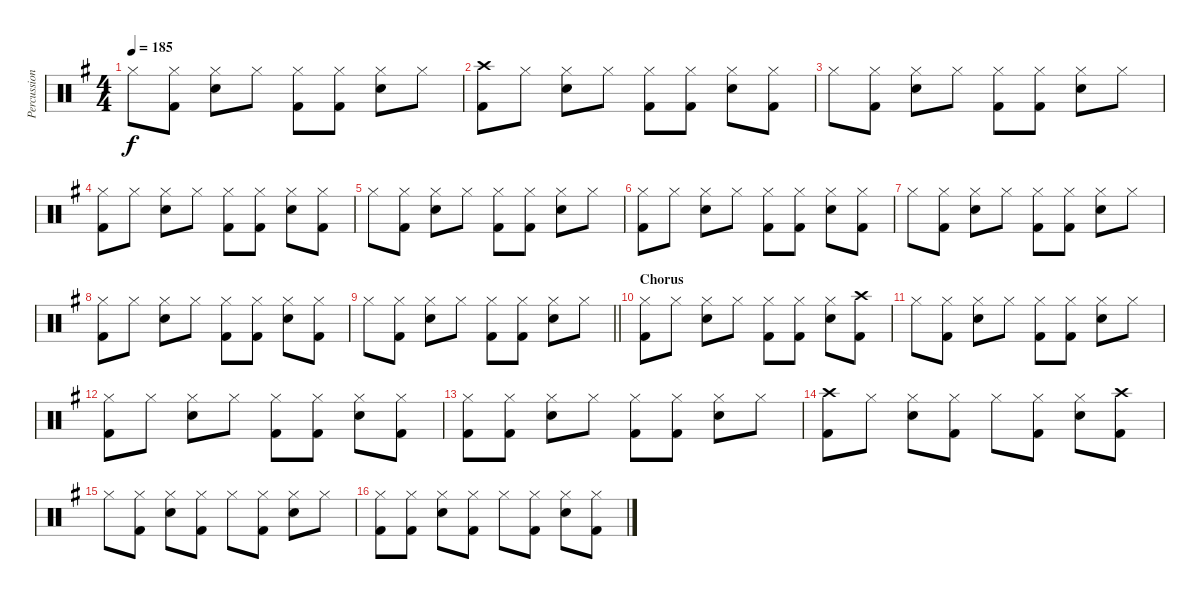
\track ("Percussion" "Percussion") {instrument percussion}
\staff {score}
\articulation defaults
\ts (4 4)
\tempo 185
\clef neutral
\ks g "Hi-Hat (closed)".8{dy f}
("Hi-Hat (closed)" "Kick (hit) 2").8 ("Hi-Hat (closed)" "Snare (hit) 2").8 "Hi-Hat (closed)".8 ("Hi-Hat (closed)" "Kick (hit) 2").8 ("Hi-Hat (closed)" "Kick (hit) 2").8 ("Hi-Hat (closed)" "Snare (hit) 2").8 "Hi-Hat (closed)".8 |
("Crash high (hit)" "Kick (hit) 2").8 "Hi-Hat (closed)".8 ("Hi-Hat (closed)" "Snare (hit) 2").8 "Hi-Hat (closed)".8 ("Hi-Hat (closed)" "Kick (hit) 2").8 ("Hi-Hat (closed)" "Kick (hit) 2").8 ("Hi-Hat (closed)" "Snare (hit) 2").8 ("Hi-Hat (closed)" "Kick (hit) 2").8 |
"Hi-Hat (closed)".8 ("Hi-Hat (closed)" "Kick (hit) 2").8 ("Hi-Hat (closed)" "Snare (hit) 2").8 "Hi-Hat (closed)".8 ("Hi-Hat (closed)" "Kick (hit) 2").8 ("Hi-Hat (closed)" "Kick (hit) 2").8 ("Hi-Hat (closed)" "Snare (hit) 2").8 "Hi-Hat (closed)".8 |
("Hi-Hat (closed)" "Kick (hit) 2").8 "Hi-Hat (closed)".8 ("Hi-Hat (closed)" "Snare (hit) 2").8 "Hi-Hat (closed)".8 ("Hi-Hat (closed)" "Kick (hit) 2").8 ("Hi-Hat (closed)" "Kick (hit) 2").8 ("Hi-Hat (closed)" "Snare (hit) 2").8 ("Hi-Hat (closed)" "Kick (hit) 2").8 |
"Hi-Hat (closed)".8 ("Hi-Hat (closed)" "Kick (hit) 2").8 ("Hi-Hat (closed)" "Snare (hit) 2").8 "Hi-Hat (closed)".8 ("Hi-Hat (closed)" "Kick (hit) 2").8 ("Hi-Hat (closed)" "Kick (hit) 2").8 ("Hi-Hat (closed)" "Snare (hit) 2").8 "Hi-Hat (closed)".8 |
("Hi-Hat (closed)" "Kick (hit) 2").8 "Hi-Hat (closed)".8 ("Hi-Hat (closed)" "Snare (hit) 2").8 "Hi-Hat (closed)".8 ("Hi-Hat (closed)" "Kick (hit) 2").8 ("Hi-Hat (closed)" "Kick (hit) 2").8 ("Hi-Hat (closed)" "Snare (hit) 2").8 ("Hi-Hat (closed)" "Kick (hit) 2").8 |
"Hi-Hat (closed)".8 ("Hi-Hat (closed)" "Kick (hit) 2").8 ("Hi-Hat (closed)" "Snare (hit) 2").8 "Hi-Hat (closed)".8 ("Hi-Hat (closed)" "Kick (hit) 2").8 ("Hi-Hat (closed)" "Kick (hit) 2").8 ("Hi-Hat (closed)" "Snare (hit) 2").8 "Hi-Hat (closed)".8 |
("Hi-Hat (closed)" "Kick (hit) 2").8 "Hi-Hat (closed)".8 ("Hi-Hat (closed)" "Snare (hit) 2").8 "Hi-Hat (closed)".8 ("Hi-Hat (closed)" "Kick (hit) 2").8 ("Hi-Hat (closed)" "Kick (hit) 2").8 ("Hi-Hat (closed)" "Snare (hit) 2").8 ("Hi-Hat (closed)" "Kick (hit) 2").8 |
\barLineRight lightlight "Hi-Hat (closed)".8
("Hi-Hat (closed)" "Kick (hit) 2").8 ("Hi-Hat (closed)" "Snare (hit) 2").8 "Hi-Hat (closed)".8 ("Hi-Hat (closed)" "Kick (hit) 2").8 ("Hi-Hat (closed)" "Kick (hit) 2").8 ("Hi-Hat (closed)" "Snare (hit) 2").8 "Hi-Hat (closed)".8 |
\section ("" "Chorus")
("Hi-Hat (closed)" "Kick (hit) 2").8 "Hi-Hat (closed)".8 ("Hi-Hat (closed)" "Snare (hit) 2").8 "Hi-Hat (closed)".8 ("Hi-Hat (closed)" "Kick (hit) 2").8 ("Hi-Hat (closed)" "Kick (hit) 2").8 ("Hi-Hat (closed)" "Snare (hit) 2").8 ("Crash high (hit)" "Kick (hit) 2").8 |
"Hi-Hat (closed)".8 ("Hi-Hat (closed)" "Kick (hit) 2").8 ("Hi-Hat (closed)" "Snare (hit) 2").8 "Hi-Hat (closed)".8 ("Hi-Hat (closed)" "Kick (hit) 2").8 ("Hi-Hat (closed)" "Kick (hit) 2").8 ("Hi-Hat (closed)" "Snare (hit) 2").8 "Hi-Hat (closed)".8 |
("Hi-Hat (closed)" "Kick (hit) 2").8 "Hi-Hat (closed)".8 ("Hi-Hat (closed)" "Snare (hit) 2").8 "Hi-Hat (closed)".8 ("Hi-Hat (closed)" "Kick (hit) 2").8 ("Hi-Hat (closed)" "Kick (hit) 2").8 ("Hi-Hat (closed)" "Snare (hit) 2").8 ("Hi-Hat (closed)" "Kick (hit) 2").8 |
("Hi-Hat (closed)" "Kick (hit) 2").8 ("Hi-Hat (closed)" "Kick (hit) 2").8 ("Hi-Hat (closed)" "Snare (hit) 2").8 "Hi-Hat (closed)".8 ("Hi-Hat (closed)" "Kick (hit) 2").8 ("Hi-Hat (closed)" "Kick (hit) 2").8 ("Hi-Hat (closed)" "Snare (hit) 2").8 "Hi-Hat (closed)".8 |
("Crash high (hit)" "Kick (hit) 2").8 "Hi-Hat (closed)".8 ("Hi-Hat (closed)" "Snare (hit) 2").8 ("Hi-Hat (closed)" "Kick (hit) 2").8 "Hi-Hat (closed)".8 ("Hi-Hat (closed)" "Kick (hit) 2").8 ("Hi-Hat (closed)" "Snare (hit) 2").8 ("Crash high (hit)" "Kick (hit) 2").8 |
"Hi-Hat (closed)".8 ("Hi-Hat (closed)" "Kick (hit) 2").8 ("Hi-Hat (closed)" "Snare (hit) 2").8 ("Hi-Hat (closed)" "Kick (hit) 2").8 "Hi-Hat (closed)".8 ("Hi-Hat (closed)" "Kick (hit) 2").8 ("Hi-Hat (closed)" "Snare (hit) 2").8 "Hi-Hat (closed)".8 |
("Hi-Hat (closed)" "Kick (hit) 2").8 ("Hi-Hat (closed)" "Kick (hit) 2").8 ("Hi-Hat (closed)" "Snare (hit) 2").8 ("Hi-Hat (closed)" "Kick (hit) 2").8 "Hi-Hat (closed)".8 ("Hi-Hat (closed)" "Kick (hit) 2").8 ("Hi-Hat (closed)" "Snare (hit) 2").8 ("Hi-Hat (closed)" "Kick (hit) 2").8
